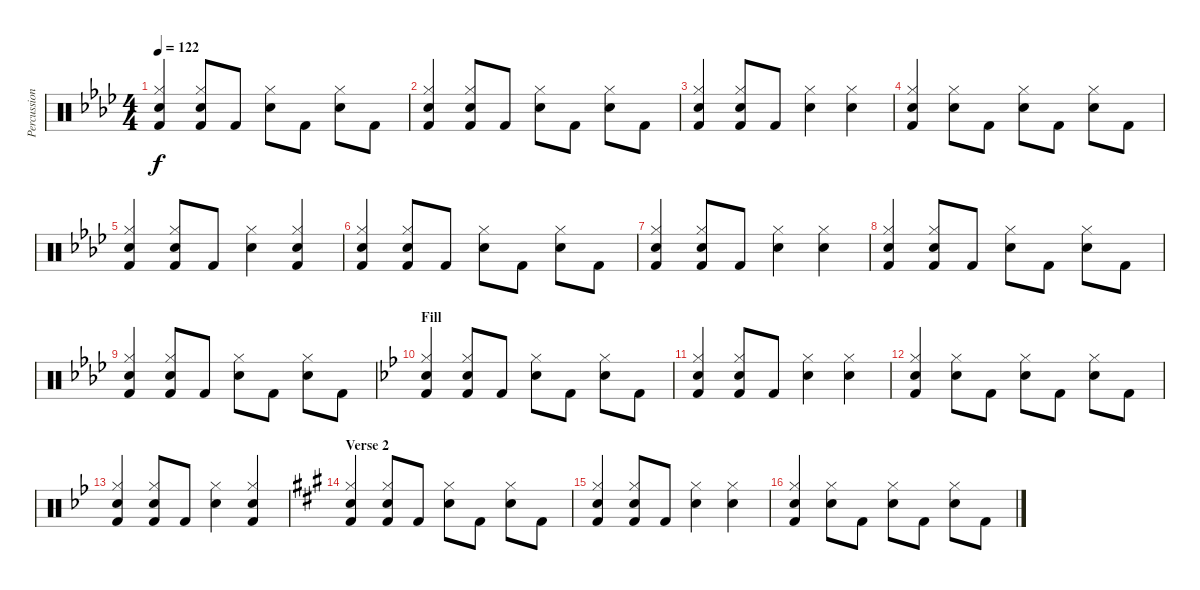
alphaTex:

\track ("Percussion" "Percussion") {instrument percussion}
\staff {score}
\articulation defaults
\ts (4 4)
\tempo 122
\clef neutral
\ks ab
("Hand Clap (hit)" "Hi-Hat (closed)" "Kick (hit) 2").4{dy f} ("Hand Clap (hit)" "Hi-Hat (closed)" "Kick (hit) 2").8 "Kick (hit) 2".8 ("Hand Clap (hit)" "Hi-Hat (closed)").8 "Kick (hit) 2".8 ("Hand Clap (hit)" "Hi-Hat (closed)").8 "Kick (hit) 2".8 |
("Hand Clap (hit)" "Hi-Hat (closed)" "Kick (hit) 2").4 ("Hand Clap (hit)" "Hi-Hat (closed)" "Kick (hit) 2").8 "Kick (hit) 2".8 ("Hand Clap (hit)" "Hi-Hat (closed)").8 "Kick (hit) 2".8 ("Hand Clap (hit)" "Hi-Hat (closed)").8 "Kick (hit) 2".8 |
("Hand Clap (hit)" "Hi-Hat (closed)" "Kick (hit) 2").4 ("Hand Clap (hit)" "Hi-Hat (closed)" "Kick (hit) 2").8 "Kick (hit) 2".8 ("Hand Clap (hit)" "Hi-Hat (closed)").4 ("Hand Clap (hit)" "Hi-Hat (closed)").4 |
("Hand Clap (hit)" "Hi-Hat (closed)" "Kick (hit) 2").4 ("Hand Clap (hit)" "Hi-Hat (closed)").8 "Kick (hit) 2".8 ("Hand Clap (hit)" "Hi-Hat (closed)").8 "Kick (hit) 2".8 ("Hand Clap (hit)" "Hi-Hat (closed)").8 "Kick (hit) 2".8 |
("Hand Clap (hit)" "Hi-Hat (closed)" "Kick (hit) 2").4 ("Hand Clap (hit)" "Hi-Hat (closed)" "Kick (hit) 2").8 "Kick (hit) 2".8 ("Hand Clap (hit)" "Hi-Hat (closed)").4 ("Hand Clap (hit)" "Hi-Hat (closed)" "Kick (hit) 2").4 |
("Hand Clap (hit)" "Hi-Hat (closed)" "Kick (hit) 2").4 ("Hand Clap (hit)" "Hi-Hat (closed)" "Kick (hit) 2").8 "Kick (hit) 2".8 ("Hand Clap (hit)" "Hi-Hat (closed)").8 "Kick (hit) 2".8 ("Hand Clap (hit)" "Hi-Hat (closed)").8 "Kick (hit) 2".8 |
("Hand Clap (hit)" "Hi-Hat (closed)" "Kick (hit) 2").4 ("Hand Clap (hit)" "Hi-Hat (closed)" "Kick (hit) 2").8 "Kick (hit) 2".8 ("Hand Clap (hit)" "Hi-Hat (closed)").4 ("Hand Clap (hit)" "Hi-Hat (closed)").4 |
("Hand Clap (hit)" "Hi-Hat (closed)" "Kick (hit) 2").4 ("Hand Clap (hit)" "Hi-Hat (closed)" "Kick (hit) 2").8 "Kick (hit) 2".8 ("Hand Clap (hit)" "Hi-Hat (closed)").8 "Kick (hit) 2".8 ("Hand Clap (hit)" "Hi-Hat (closed)").8 "Kick (hit) 2".8 |
("Hand Clap (hit)" "Hi-Hat (closed)" "Kick (hit) 2").4 ("Hand Clap (hit)" "Hi-Hat (closed)" "Kick (hit) 2").8 "Kick (hit) 2".8 ("Hand Clap (hit)" "Hi-Hat (closed)").8 "Kick (hit) 2".8 ("Hand Clap (hit)" "Hi-Hat (closed)").8 "Kick (hit) 2".8 |
\section ("" "Fill")
\ks bb
("Hand Clap (hit)" "Hi-Hat (closed)" "Kick (hit) 2").4 ("Hand Clap (hit)" "Hi-Hat (closed)" "Kick (hit) 2").8 "Kick (hit) 2".8 ("Hand Clap (hit)" "Hi-Hat (closed)").8 "Kick (hit) 2".8 ("Hand Clap (hit)" "Hi-Hat (closed)").8 "Kick (hit) 2".8 |
("Hand Clap (hit)" "Hi-Hat (closed)" "Kick (hit) 2").4 ("Hand Clap (hit)" "Hi-Hat (closed)" "Kick (hit) 2").8 "Kick (hit) 2".8 ("Hand Clap (hit)" "Hi-Hat (closed)").4 ("Hand Clap (hit)" "Hi-Hat (closed)").4 |
("Hand Clap (hit)" "Hi-Hat (closed)" "Kick (hit) 2").4 ("Hand Clap (hit)" "Hi-Hat (closed)").8 "Kick (hit) 2".8 ("Hand Clap (hit)" "Hi-Hat (closed)").8 "Kick (hit) 2".8 ("Hand Clap (hit)" "Hi-Hat (closed)").8 "Kick (hit) 2".8 |
("Hand Clap (hit)" "Hi-Hat (closed)" "Kick (hit) 2").4 ("Hand Clap (hit)" "Hi-Hat (closed)" "Kick (hit) 2").8 "Kick (hit) 2".8 ("Hand Clap (hit)" "Hi-Hat (closed)").4 ("Hand Clap (hit)" "Hi-Hat (closed)" "Kick (hit) 2").4 |
\section ("" "Verse 2")
\ks a
("Hand Clap (hit)" "Hi-Hat (closed)" "Kick (hit) 2").4 ("Hand Clap (hit)" "Hi-Hat (closed)" "Kick (hit) 2").8 "Kick (hit) 2".8 ("Hand Clap (hit)" "Hi-Hat (closed)").8 "Kick (hit) 2".8 ("Hand Clap (hit)" "Hi-Hat (closed)").8 "Kick (hit) 2".8 |
("Hand Clap (hit)" "Hi-Hat (closed)" "Kick (hit) 2").4 ("Hand Clap (hit)" "Hi-Hat (closed)" "Kick (hit) 2").8 "Kick (hit) 2".8 ("Hand Clap (hit)" "Hi-Hat (closed)").4 ("Hand Clap (hit)" "Hi-Hat (closed)").4 |
("Hand Clap (hit)" "Hi-Hat (closed)" "Kick (hit) 2").4 ("Hand Clap (hit)" "Hi-Hat (closed)").8 "Kick (hit) 2".8 ("Hand Clap (hit)" "Hi-Hat (closed)").8 "Kick (hit) 2".8 ("Hand Clap (hit)" "Hi-Hat (closed)").8 "Kick (hit) 2".8
